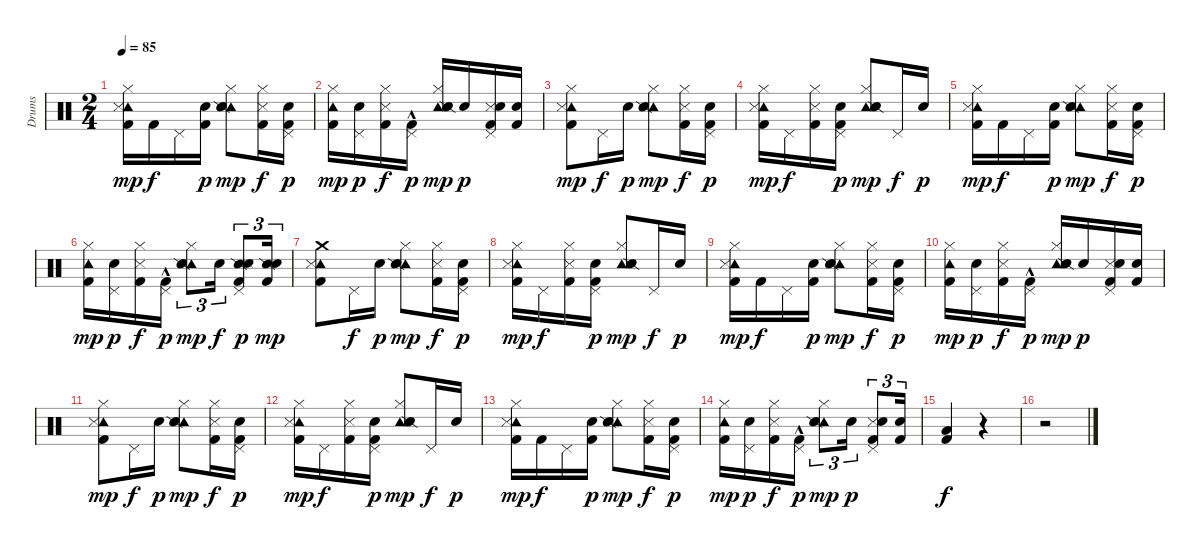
\track ("Drums" "Drums") {instrument percussion}
\staff {score}
\articulation defaults
\ts (2 4)
\tempo 85
\clef neutral
\ks c
("Tambourine (hit)" "Metronome (hit)" "Kick (hit) 2" "Hi-Hat (closed)").16{dy mp} "Kick (hit) 2".16{dy f} "Pedal Hi-Hat (hit)".16 ("Electric Snare (hit)" "Kick (hit) 2").16{dy p} ("Tambourine (hit)" "Snare (hit) 2" "Snare (side stick) 2" "Hi-Hat (closed)").8{dy mp} ("Metronome (hit)" "Kick (hit) 2" "Hi-Hat (closed)").16{dy f} ("Kick (hit) 2" "Electric Snare (hit)" "Pedal Hi-Hat (hit)").16{dy p} |
("Kick (hit) 2" "Tambourine (hit)" "Hi-Hat (closed)").16{dy mp} ("Snare (hit) 2" "Pedal Hi-Hat (hit)").16{dy p} ("Metronome (hit)" "Kick (hit) 2" "Hi-Hat (closed)").16{dy f} ("Kick (hit) 2"{hac} "Pedal Hi-Hat (hit)").16{dy p} ("Tambourine (hit)" "Snare (hit) 2" "Snare (side stick) 2" "Hi-Hat (closed)").16{dy mp} "Electric Snare (hit)".16{dy p} ("Metronome (hit)" "Kick (hit) 2" "Electric Snare (hit)" "Pedal Hi-Hat (hit)").16 ("Kick (hit) 2" "Electric Snare (hit)").16 |
("Tambourine (hit)" "Metronome (hit)" "Kick (hit) 2" "Hi-Hat (closed)").8{dy mp} "Pedal Hi-Hat (hit)".16{dy f} "Electric Snare (hit)".16{dy p} ("Tambourine (hit)" "Snare (hit) 2" "Hi-Hat (closed)" "Snare (side stick) 2").8{dy mp} ("Hi-Hat (closed)" "Metronome (hit)" "Kick (hit) 2").16{dy f} ("Electric Snare (hit)" "Pedal Hi-Hat (hit)" "Kick (hit) 2").16{dy p} |
("Tambourine (hit)" "Metronome (hit)" "Kick (hit) 2" "Hi-Hat (closed)").16{dy mp} "Pedal Hi-Hat (hit)".16{dy f} ("Hi-Hat (closed)" "Metronome (hit)" "Kick (hit) 2").16 ("Electric Snare (hit)" "Pedal Hi-Hat (hit)" "Kick (hit) 2").16{dy p} ("Tambourine (hit)" "Snare (side stick) 2" "Snare (hit) 2" "Hi-Hat (closed)").8{dy mp} "Pedal Hi-Hat (hit)".16{dy f} "Electric Snare (hit)".16{dy p} |
("Tambourine (hit)" "Metronome (hit)" "Kick (hit) 2" "Hi-Hat (closed)").16{dy mp} "Kick (hit) 2".16{dy f} "Pedal Hi-Hat (hit)".16 ("Electric Snare (hit)" "Kick (hit) 2").16{dy p} ("Tambourine (hit)" "Snare (hit) 2" "Snare (side stick) 2" "Hi-Hat (closed)").8{dy mp} ("Metronome (hit)" "Kick (hit) 2" "Hi-Hat (closed)").16{dy f} ("Kick (hit) 2" "Electric Snare (hit)" "Pedal Hi-Hat (hit)").16{dy p} |
("Kick (hit) 2" "Tambourine (hit)" "Hi-Hat (closed)").16{dy mp} ("Snare (hit) 2" "Pedal Hi-Hat (hit)").16{dy p} ("Metronome (hit)" "Kick (hit) 2" "Hi-Hat (closed)").16{dy f} ("Kick (hit) 2"{hac} "Pedal Hi-Hat (hit)").16{dy p} ("Tambourine (hit)" "Snare (hit) 2" "Snare (side stick) 2" "Hi-Hat (closed)").8{tu (3 2) dy mp} "Electric Snare (hit)".16{tu (3 2) dy f} ("Snare (side stick) 2" "Metronome (hit)" "Kick (hit) 2" "Electric Snare (hit)" "Pedal Hi-Hat (hit)").8{tu (3 2) dy p} ("Snare (side stick) 2" "Kick (hit) 2" "Electric Snare (hit)").16{tu (3 2) dy mp} |
("Crash medium (hit)" "Tambourine (hit)" "Metronome (hit)" "Kick (hit) 2").8 "Pedal Hi-Hat (hit)".16{dy f} "Electric Snare (hit)".16{dy p} ("Tambourine (hit)" "Snare (hit) 2" "Hi-Hat (closed)" "Snare (side stick) 2").8{dy mp} ("Hi-Hat (closed)" "Metronome (hit)" "Kick (hit) 2").16{dy f} ("Electric Snare (hit)" "Pedal Hi-Hat (hit)" "Kick (hit) 2").16{dy p} |
("Tambourine (hit)" "Metronome (hit)" "Kick (hit) 2" "Hi-Hat (closed)").16{dy mp} "Pedal Hi-Hat (hit)".16{dy f} ("Hi-Hat (closed)" "Metronome (hit)" "Kick (hit) 2").16 ("Electric Snare (hit)" "Pedal Hi-Hat (hit)" "Kick (hit) 2").16{dy p} ("Tambourine (hit)" "Snare (side stick) 2" "Snare (hit) 2" "Hi-Hat (closed)").8{dy mp} "Pedal Hi-Hat (hit)".16{dy f} "Electric Snare (hit)".16{dy p} |
("Tambourine (hit)" "Metronome (hit)" "Kick (hit) 2" "Hi-Hat (closed)").16{dy mp} "Kick (hit) 2".16{dy f} "Pedal Hi-Hat (hit)".16 ("Electric Snare (hit)" "Kick (hit) 2").16{dy p} ("Tambourine (hit)" "Snare (hit) 2" "Snare (side stick) 2" "Hi-Hat (closed)").8{dy mp} ("Metronome (hit)" "Kick (hit) 2" "Hi-Hat (closed)").16{dy f} ("Kick (hit) 2" "Electric Snare (hit)" "Pedal Hi-Hat (hit)").16{dy p} |
("Kick (hit) 2" "Tambourine (hit)" "Hi-Hat (closed)").16{dy mp} ("Snare (hit) 2" "Pedal Hi-Hat (hit)").16{dy p} ("Metronome (hit)" "Kick (hit) 2" "Hi-Hat (closed)").16{dy f} ("Kick (hit) 2"{hac} "Pedal Hi-Hat (hit)").16{dy p} ("Tambourine (hit)" "Snare (hit) 2" "Snare (side stick) 2" "Hi-Hat (closed)").16{dy mp} "Electric Snare (hit)".16{dy p} ("Metronome (hit)" "Kick (hit) 2" "Electric Snare (hit)" "Pedal Hi-Hat (hit)").16 ("Kick (hit) 2" "Electric Snare (hit)").16 |
("Tambourine (hit)" "Metronome (hit)" "Kick (hit) 2" "Hi-Hat (closed)").8{dy mp} "Pedal Hi-Hat (hit)".16{dy f} "Electric Snare (hit)".16{dy p} ("Tambourine (hit)" "Snare (hit) 2" "Hi-Hat (closed)" "Snare (side stick) 2").8{dy mp} ("Hi-Hat (closed)" "Metronome (hit)" "Kick (hit) 2").16{dy f} ("Electric Snare (hit)" "Pedal Hi-Hat (hit)" "Kick (hit) 2").16{dy p} |
("Tambourine (hit)" "Metronome (hit)" "Kick (hit) 2" "Hi-Hat (closed)").16{dy mp} "Pedal Hi-Hat (hit)".16{dy f} ("Hi-Hat (closed)" "Metronome (hit)" "Kick (hit) 2").16 ("Electric Snare (hit)" "Pedal Hi-Hat (hit)" "Kick (hit) 2").16{dy p} ("Tambourine (hit)" "Snare (side stick) 2" "Snare (hit) 2" "Hi-Hat (closed)").8{dy mp} "Pedal Hi-Hat (hit)".16{dy f} "Electric Snare (hit)".16{dy p} |
("Tambourine (hit)" "Metronome (hit)" "Kick (hit) 2" "Hi-Hat (closed)").16{dy mp} "Kick (hit) 2".16{dy f} "Pedal Hi-Hat (hit)".16 ("Electric Snare (hit)" "Kick (hit) 2").16{dy p} ("Tambourine (hit)" "Snare (hit) 2" "Snare (side stick) 2" "Hi-Hat (closed)").8{dy mp} ("Metronome (hit)" "Kick (hit) 2" "Hi-Hat (closed)").16{dy f} ("Kick (hit) 2" "Electric Snare (hit)" "Pedal Hi-Hat (hit)").16{dy p} |
("Kick (hit) 2" "Tambourine (hit)" "Hi-Hat (closed)").16{dy mp} ("Snare (hit) 2" "Pedal Hi-Hat (hit)").16{dy p} ("Metronome (hit)" "Kick (hit) 2" "Hi-Hat (closed)").16{dy f} ("Kick (hit) 2"{hac} "Pedal Hi-Hat (hit)").16{dy p} ("Tambourine (hit)" "Snare (hit) 2" "Snare (side stick) 2" "Hi-Hat (closed)").8{tu (3 2) dy mp} "Electric Snare (hit)".16{tu (3 2) dy p} ("Metronome (hit)" "Kick (hit) 2" "Electric Snare (hit)" "Pedal Hi-Hat (hit)").8{tu (3 2)} ("Kick (hit) 2" "Electric Snare (hit)").16{tu (3 2)} |
("Low Floor Tom (hit)" "Kick (hit) 2").4{dy f} r.4 |
r.2
